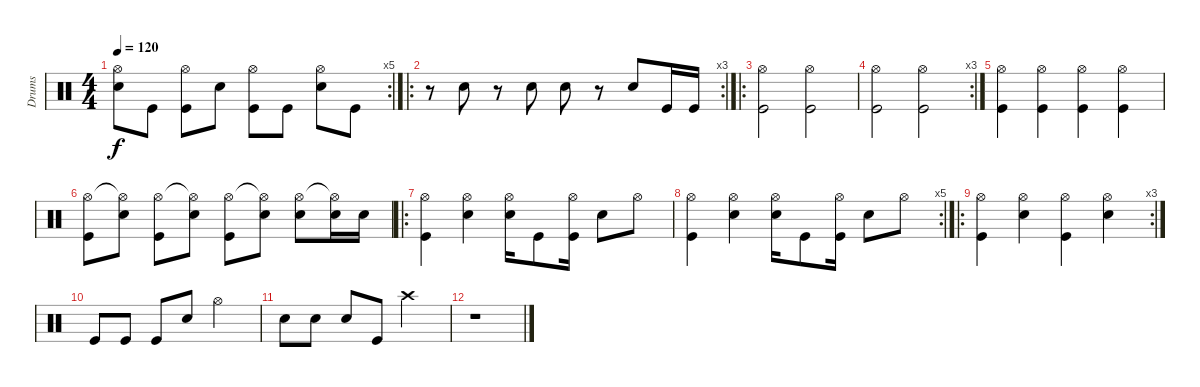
\track ("Drums" "Drums") {instrument percussion}
\staff {score}
\articulation defaults
\rc 5
\ts (4 4)
\tempo 120
\clef neutral
\ks c
("Hi-Hat (open)" "Snare (hit) 2").8{dy f} "Kick (hit)".8 ("Hi-Hat (open)" "Kick (hit)").8 "Snare (hit) 2".8 ("Hi-Hat (open)" "Kick (hit)").8 "Kick (hit)".8 ("Hi-Hat (open)" "Snare (hit) 2").8 "Kick (hit)".8 |
\ro
\rc 3
r.8 "Snare (hit) 2".8 r.8 "Snare (hit) 2".8 "Snare (hit) 2".8 r.8 "Snare (hit) 2".8 "Kick (hit)".16 "Kick (hit)".16 |
\ro
("Hi-Hat (open)" "Kick (hit)").2 ("Hi-Hat (open)" "Kick (hit)").2 |
\rc 3
("Hi-Hat (open)" "Kick (hit)").2 ("Hi-Hat (open)" "Kick (hit)").2 |
("Hi-Hat (open)" "Kick (hit)").4 ("Hi-Hat (open)" "Kick (hit)").4 ("Hi-Hat (open)" "Kick (hit)").4 ("Hi-Hat (open)" "Kick (hit)").4 |
("Hi-Hat (open)" "Kick (hit)").8 ("Hi-Hat (open)"{t} "Snare (hit) 2").8 ("Hi-Hat (open)" "Kick (hit)").8 ("Hi-Hat (open)"{t} "Snare (hit) 2").8 ("Hi-Hat (open)" "Kick (hit)").8 ("Hi-Hat (open)"{t} "Snare (hit) 2").8 ("Hi-Hat (open)" "Snare (hit) 2").8 ("Hi-Hat (open)"{t} "Snare (hit) 2").16 "Snare (hit) 2".16 |
\ro
("Hi-Hat (open)" "Kick (hit)").4 ("Hi-Hat (open)" "Snare (hit) 2").4 ("Hi-Hat (open)" "Snare (hit) 2").16 "Kick (hit)".8 ("Hi-Hat (open)" "Kick (hit)").16 "Snare (hit) 2".8 "Hi-Hat (open)".8 |
\rc 5
("Hi-Hat (open)" "Kick (hit)").4 ("Hi-Hat (open)" "Snare (hit) 2").4 ("Hi-Hat (open)" "Snare (hit) 2").16 "Kick (hit)".8 ("Hi-Hat (open)" "Kick (hit)").16 "Snare (hit) 2".8 "Hi-Hat (open)".8 |
\ro
\rc 3
("Hi-Hat (open)" "Kick (hit)").4 ("Hi-Hat (open)" "Snare (hit) 2").4 ("Hi-Hat (open)" "Kick (hit)").4 ("Hi-Hat (open)" "Snare (hit) 2").4 |
"Kick (hit)".8 "Kick (hit)".8 "Kick (hit)".8 "Snare (hit) 2".8 "Hi-Hat (open)".2 |
"Snare (hit) 2".8 "Snare (hit) 2".8 "Snare (hit) 2".8 "Kick (hit)".8 "Crash high (hit)".2 |
r.1
